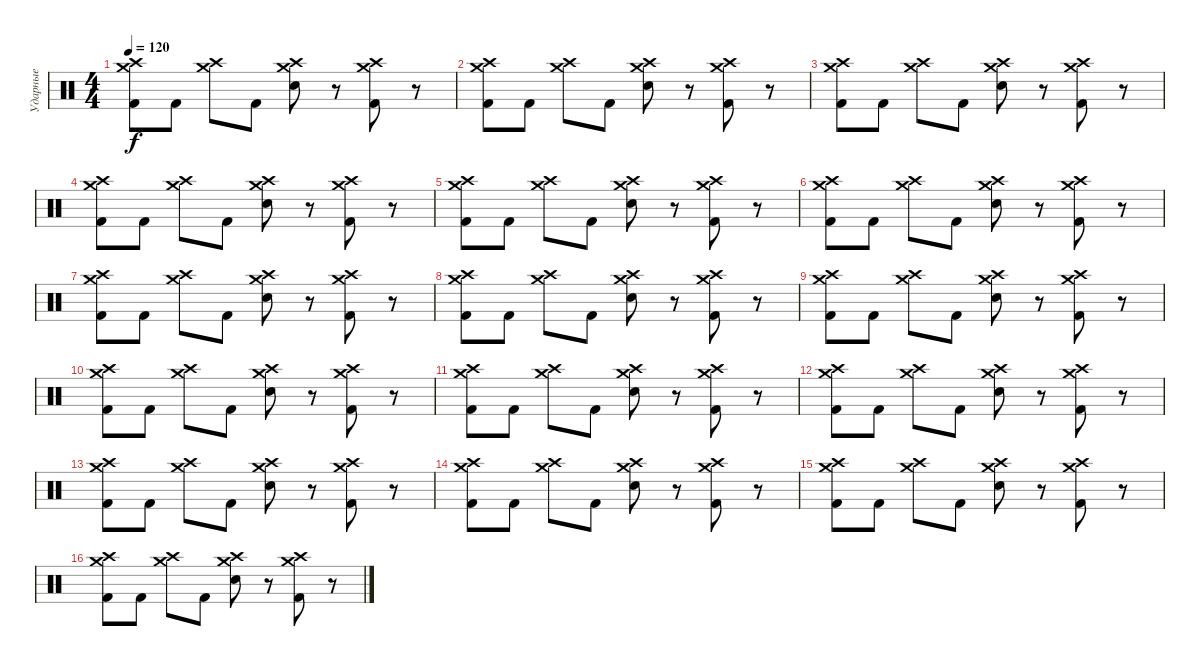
\track ("Ударные" "Ударные") {instrument percussion}
\staff {score}
\articulation defaults
\ts (4 4)
\tempo 120
\clef neutral
\ks c
("Crash high (hit)" "Crash medium (hit)" "Kick (hit) 2").8{dy f} "Kick (hit) 2".8 ("Crash high (hit)" "Crash medium (hit)").8 "Kick (hit) 2".8 ("Crash high (hit)" "Crash medium (hit)" "Electric Snare (hit)").8 r.8 ("Crash high (hit)" "Crash medium (hit)" "Kick (hit) 2").8 r.8 |
("Crash high (hit)" "Crash medium (hit)" "Kick (hit) 2").8 "Kick (hit) 2".8 ("Crash high (hit)" "Crash medium (hit)").8 "Kick (hit) 2".8 ("Crash high (hit)" "Crash medium (hit)" "Electric Snare (hit)").8 r.8 ("Crash high (hit)" "Crash medium (hit)" "Kick (hit) 2").8 r.8 |
("Crash high (hit)" "Crash medium (hit)" "Kick (hit) 2").8 "Kick (hit) 2".8 ("Crash high (hit)" "Crash medium (hit)").8 "Kick (hit) 2".8 ("Crash high (hit)" "Crash medium (hit)" "Electric Snare (hit)").8 r.8 ("Crash high (hit)" "Crash medium (hit)" "Kick (hit) 2").8 r.8 |
("Crash high (hit)" "Crash medium (hit)" "Kick (hit) 2").8 "Kick (hit) 2".8 ("Crash high (hit)" "Crash medium (hit)").8 "Kick (hit) 2".8 ("Crash high (hit)" "Crash medium (hit)" "Electric Snare (hit)").8 r.8 ("Crash high (hit)" "Crash medium (hit)" "Kick (hit) 2").8 r.8 |
("Crash high (hit)" "Crash medium (hit)" "Kick (hit) 2").8 "Kick (hit) 2".8 ("Crash high (hit)" "Crash medium (hit)").8 "Kick (hit) 2".8 ("Crash high (hit)" "Crash medium (hit)" "Electric Snare (hit)").8 r.8 ("Crash high (hit)" "Crash medium (hit)" "Kick (hit) 2").8 r.8 |
("Crash high (hit)" "Crash medium (hit)" "Kick (hit) 2").8 "Kick (hit) 2".8 ("Crash high (hit)" "Crash medium (hit)").8 "Kick (hit) 2".8 ("Crash high (hit)" "Crash medium (hit)" "Electric Snare (hit)").8 r.8 ("Crash high (hit)" "Crash medium (hit)" "Kick (hit) 2").8 r.8 |
("Crash high (hit)" "Crash medium (hit)" "Kick (hit) 2").8 "Kick (hit) 2".8 ("Crash high (hit)" "Crash medium (hit)").8 "Kick (hit) 2".8 ("Crash high (hit)" "Crash medium (hit)" "Electric Snare (hit)").8 r.8 ("Crash high (hit)" "Crash medium (hit)" "Kick (hit) 2").8 r.8 |
("Crash high (hit)" "Crash medium (hit)" "Kick (hit) 2").8 "Kick (hit) 2".8 ("Crash high (hit)" "Crash medium (hit)").8 "Kick (hit) 2".8 ("Crash high (hit)" "Crash medium (hit)" "Electric Snare (hit)").8 r.8 ("Crash high (hit)" "Crash medium (hit)" "Kick (hit) 2").8 r.8 |
("Crash high (hit)" "Crash medium (hit)" "Kick (hit) 2").8 "Kick (hit) 2".8 ("Crash high (hit)" "Crash medium (hit)").8 "Kick (hit) 2".8 ("Crash high (hit)" "Crash medium (hit)" "Electric Snare (hit)").8 r.8 ("Crash high (hit)" "Crash medium (hit)" "Kick (hit) 2").8 r.8 |
("Crash high (hit)" "Crash medium (hit)" "Kick (hit) 2").8 "Kick (hit) 2".8 ("Crash high (hit)" "Crash medium (hit)").8 "Kick (hit) 2".8 ("Crash high (hit)" "Crash medium (hit)" "Electric Snare (hit)").8 r.8 ("Crash high (hit)" "Crash medium (hit)" "Kick (hit) 2").8 r.8 |
("Crash high (hit)" "Crash medium (hit)" "Kick (hit) 2").8 "Kick (hit) 2".8 ("Crash high (hit)" "Crash medium (hit)").8 "Kick (hit) 2".8 ("Crash high (hit)" "Crash medium (hit)" "Electric Snare (hit)").8 r.8 ("Crash high (hit)" "Crash medium (hit)" "Kick (hit) 2").8 r.8 |
("Crash high (hit)" "Crash medium (hit)" "Kick (hit) 2").8 "Kick (hit) 2".8 ("Crash high (hit)" "Crash medium (hit)").8 "Kick (hit) 2".8 ("Crash high (hit)" "Crash medium (hit)" "Electric Snare (hit)").8 r.8 ("Crash high (hit)" "Crash medium (hit)" "Kick (hit) 2").8 r.8 |
("Crash high (hit)" "Crash medium (hit)" "Kick (hit) 2").8 "Kick (hit) 2".8 ("Crash high (hit)" "Crash medium (hit)").8 "Kick (hit) 2".8 ("Crash high (hit)" "Crash medium (hit)" "Electric Snare (hit)").8 r.8 ("Crash high (hit)" "Crash medium (hit)" "Kick (hit) 2").8 r.8 |
("Crash high (hit)" "Crash medium (hit)" "Kick (hit) 2").8 "Kick (hit) 2".8 ("Crash high (hit)" "Crash medium (hit)").8 "Kick (hit) 2".8 ("Crash high (hit)" "Crash medium (hit)" "Electric Snare (hit)").8 r.8 ("Crash high (hit)" "Crash medium (hit)" "Kick (hit) 2").8 r.8 |
("Crash high (hit)" "Crash medium (hit)" "Kick (hit) 2").8 "Kick (hit) 2".8 ("Crash high (hit)" "Crash medium (hit)").8 "Kick (hit) 2".8 ("Crash high (hit)" "Crash medium (hit)" "Electric Snare (hit)").8 r.8 ("Crash high (hit)" "Crash medium (hit)" "Kick (hit) 2").8 r.8 |
("Crash high (hit)" "Crash medium (hit)" "Kick (hit) 2").8 "Kick (hit) 2".8 ("Crash high (hit)" "Crash medium (hit)").8 "Kick (hit) 2".8 ("Crash high (hit)" "Crash medium (hit)" "Electric Snare (hit)").8 r.8 ("Crash high (hit)" "Crash medium (hit)" "Kick (hit) 2").8 r.8
